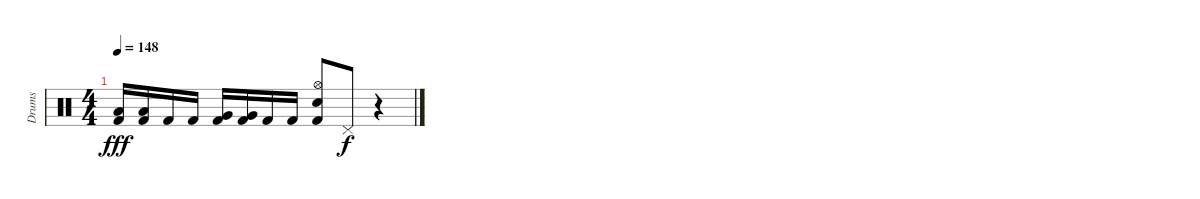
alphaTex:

\track ("Drums" "Drums") {instrument percussion}
\staff {score}
\articulation defaults
\ts (4 4)
\tempo 148
\clef neutral
\ks c
("Low Tom (hit)" "Kick (hit) 2").16{dy fff} ("Low Tom (hit)" "Kick (hit) 2").16 "Kick (hit) 2".16 "Kick (hit) 2".16 ("Very Low Tom (hit)" "Kick (hit) 2").16 ("Very Low Tom (hit)" "Kick (hit) 2").16 "Kick (hit) 2".16 "Kick (hit) 2".16 ("Hi-Hat (open)" "Electric Snare (hit)" "Kick (hit) 2").8 "Pedal Hi-Hat (hit)".8{dy f} r.4
